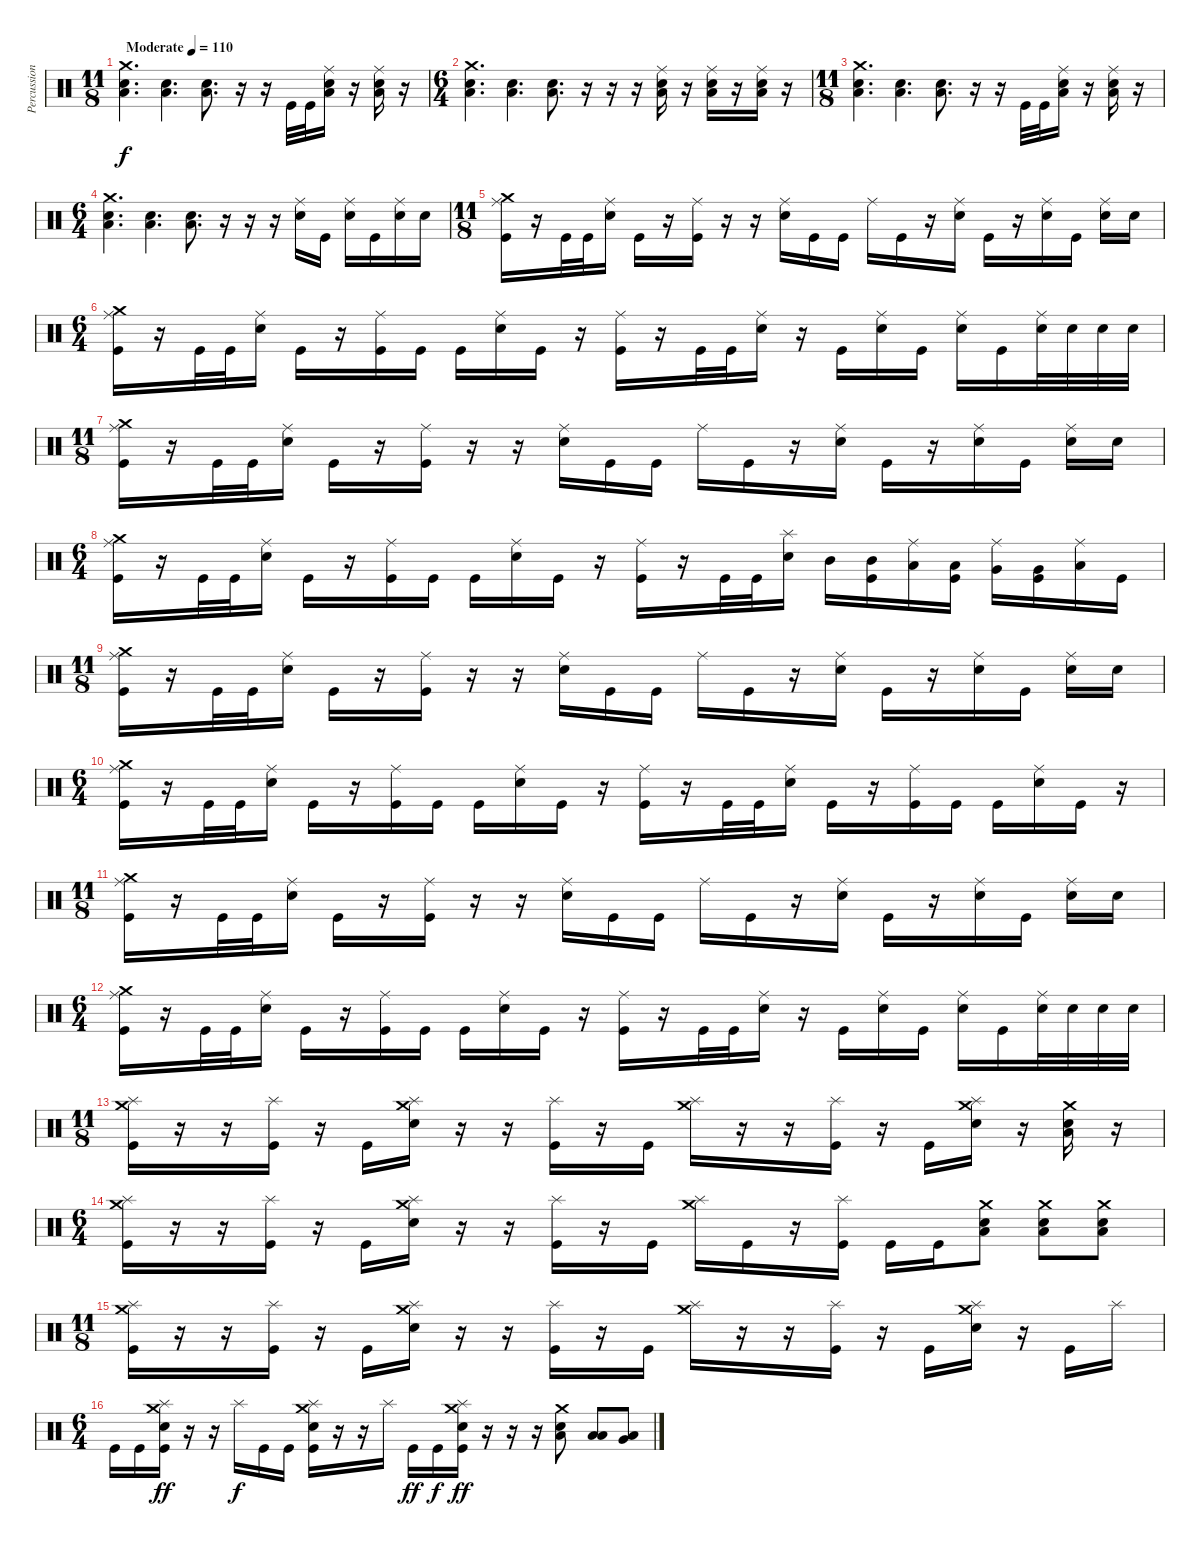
\track ("Percussion" "Percussion") {instrument percussion}
\staff {score}
\articulation defaults
\ts (11 8)
\tempo (110 "Moderate")
\clef neutral
\ks c
("Crash medium (hit)" "Electric Snare (hit)" "Low Floor Tom (hit)").4{d dy f} ("Electric Snare (hit)" "Low Floor Tom (hit)").4{d} ("Electric Snare (hit)" "Low Floor Tom (hit)").8{d} r.16 r.16 "Kick (hit)".32 "Kick (hit)".32 ("Ride (middle)" "Electric Snare (hit)" "Low Floor Tom (hit)").16 r.16 ("Ride (middle)" "Electric Snare (hit)" "Low Floor Tom (hit)").16 r.16 |
\ts (6 4)
("Crash medium (hit)" "Electric Snare (hit)" "Low Floor Tom (hit)").4{d} ("Electric Snare (hit)" "Low Floor Tom (hit)").4{d} ("Electric Snare (hit)" "Low Floor Tom (hit)").8{d} r.16 r.16 r.16 ("Ride (middle)" "Electric Snare (hit)" "Low Floor Tom (hit)").16 r.16 ("Ride (middle)" "Electric Snare (hit)" "Low Floor Tom (hit)").16 r.16 ("Ride (middle)" "Electric Snare (hit)" "Low Floor Tom (hit)").16 r.16 |
\ts (11 8)
("Crash medium (hit)" "Electric Snare (hit)" "Low Floor Tom (hit)").4{d} ("Electric Snare (hit)" "Low Floor Tom (hit)").4{d} ("Electric Snare (hit)" "Low Floor Tom (hit)").8{d} r.16 r.16 "Kick (hit)".32 "Kick (hit)".32 ("Ride (middle)" "Electric Snare (hit)" "Low Floor Tom (hit)").16 r.16 ("Ride (middle)" "Electric Snare (hit)" "Low Floor Tom (hit)").16 r.16 |
\ts (6 4)
("Crash medium (hit)" "Electric Snare (hit)" "Low Floor Tom (hit)").4{d} ("Electric Snare (hit)" "Low Floor Tom (hit)").4{d} ("Electric Snare (hit)" "Low Floor Tom (hit)").8{d} r.16 r.16 r.16 ("Ride (middle)" "Electric Snare (hit)").16 "Kick (hit)".16 ("Ride (middle)" "Electric Snare (hit)").16 "Kick (hit)".16 ("Ride (middle)" "Electric Snare (hit)").16 "Electric Snare (hit)".16 |
\ts (11 8)
("Ride (middle)" "Crash medium (hit)" "Kick (hit)").16 r.16 "Kick (hit)".32 "Kick (hit)".32 ("Ride (middle)" "Electric Snare (hit)").16 "Kick (hit)".16 r.16 ("Ride (middle)" "Kick (hit)").16 r.16 r.16 ("Ride (middle)" "Electric Snare (hit)").16 "Kick (hit)".16 "Kick (hit)".16 "Ride (middle)".16 "Kick (hit)".16 r.16 ("Ride (middle)" "Electric Snare (hit)").16 "Kick (hit)".16 r.16 ("Ride (middle)" "Electric Snare (hit)").16 "Kick (hit)".16 ("Ride (middle)" "Electric Snare (hit)").16 "Electric Snare (hit)".16 |
\ts (6 4)
("Ride (middle)" "Crash medium (hit)" "Kick (hit)").16 r.16 "Kick (hit)".32 "Kick (hit)".32 ("Ride (middle)" "Electric Snare (hit)").16 "Kick (hit)".16 r.16 ("Ride (middle)" "Kick (hit)").16 "Kick (hit)".16 "Kick (hit)".16 ("Ride (middle)" "Electric Snare (hit)").16 "Kick (hit)".16 r.16 ("Ride (middle)" "Kick (hit)").16 r.16 "Kick (hit)".32 "Kick (hit)".32 ("Ride (middle)" "Electric Snare (hit)").16 r.16 "Kick (hit)".16 ("Ride (middle)" "Electric Snare (hit)").16 "Kick (hit)".16 ("Ride (middle)" "Electric Snare (hit)").16 "Kick (hit)".16 ("Ride (middle)" "Electric Snare (hit)").32 "Electric Snare (hit)".32 "Electric Snare (hit)".32 "Electric Snare (hit)".32 |
\ts (11 8)
("Ride (middle)" "Crash medium (hit)" "Kick (hit)").16 r.16 "Kick (hit)".32 "Kick (hit)".32 ("Ride (middle)" "Electric Snare (hit)").16 "Kick (hit)".16 r.16 ("Ride (middle)" "Kick (hit)").16 r.16 r.16 ("Ride (middle)" "Electric Snare (hit)").16 "Kick (hit)".16 "Kick (hit)".16 "Ride (middle)".16 "Kick (hit)".16 r.16 ("Ride (middle)" "Electric Snare (hit)").16 "Kick (hit)".16 r.16 ("Ride (middle)" "Electric Snare (hit)").16 "Kick (hit)".16 ("Ride (middle)" "Electric Snare (hit)").16 "Electric Snare (hit)".16 |
\ts (6 4)
("Ride (middle)" "Crash medium (hit)" "Kick (hit)").16 r.16 "Kick (hit)".32 "Kick (hit)".32 ("Ride (middle)" "Electric Snare (hit)").16 "Kick (hit)".16 r.16 ("Ride (middle)" "Kick (hit)").16 "Kick (hit)".16 "Kick (hit)".16 ("Ride (middle)" "Electric Snare (hit)").16 "Kick (hit)".16 r.16 ("Ride (middle)" "Kick (hit)").16 r.16 "Kick (hit)".32 "Kick (hit)".32 ("Splash (hit)" "Electric Snare (hit)").16 "Mid Tom (hit)".16 ("Mid Tom (hit)" "Kick (hit)").16 ("Ride (middle)" "Low Tom (hit)").16 ("Low Tom (hit)" "Kick (hit)").16 ("Ride (middle)" "Very Low Tom (hit)").16 ("Very Low Tom (hit)" "Kick (hit)").16 ("Ride (middle)" "Low Floor Tom (hit)").16 "Kick (hit)".16 |
\ts (11 8)
("Ride (middle)" "Crash medium (hit)" "Kick (hit)").16 r.16 "Kick (hit)".32 "Kick (hit)".32 ("Ride (middle)" "Electric Snare (hit)").16 "Kick (hit)".16 r.16 ("Ride (middle)" "Kick (hit)").16 r.16 r.16 ("Ride (middle)" "Electric Snare (hit)").16 "Kick (hit)".16 "Kick (hit)".16 "Ride (middle)".16 "Kick (hit)".16 r.16 ("Ride (middle)" "Electric Snare (hit)").16 "Kick (hit)".16 r.16 ("Ride (middle)" "Electric Snare (hit)").16 "Kick (hit)".16 ("Ride (middle)" "Electric Snare (hit)").16 "Electric Snare (hit)".16 |
\ts (6 4)
("Ride (middle)" "Crash medium (hit)" "Kick (hit)").16 r.16 "Kick (hit)".32 "Kick (hit)".32 ("Ride (middle)" "Electric Snare (hit)").16 "Kick (hit)".16 r.16 ("Ride (middle)" "Kick (hit)").16 "Kick (hit)".16 "Kick (hit)".16 ("Ride (middle)" "Electric Snare (hit)").16 "Kick (hit)".16 r.16 ("Ride (middle)" "Kick (hit)").16 r.16 "Kick (hit)".32 "Kick (hit)".32 ("Ride (middle)" "Electric Snare (hit)").16 "Kick (hit)".16 r.16 ("Ride (middle)" "Kick (hit)").16 "Kick (hit)".16 "Kick (hit)".16 ("Ride (middle)" "Electric Snare (hit)").16 "Kick (hit)".16 r.16 |
\ts (11 8)
("Ride (middle)" "Crash medium (hit)" "Kick (hit)").16 r.16 "Kick (hit)".32 "Kick (hit)".32 ("Ride (middle)" "Electric Snare (hit)").16 "Kick (hit)".16 r.16 ("Ride (middle)" "Kick (hit)").16 r.16 r.16 ("Ride (middle)" "Electric Snare (hit)").16 "Kick (hit)".16 "Kick (hit)".16 "Ride (middle)".16 "Kick (hit)".16 r.16 ("Ride (middle)" "Electric Snare (hit)").16 "Kick (hit)".16 r.16 ("Ride (middle)" "Electric Snare (hit)").16 "Kick (hit)".16 ("Ride (middle)" "Electric Snare (hit)").16 "Electric Snare (hit)".16 |
\ts (6 4)
("Ride (middle)" "Crash medium (hit)" "Kick (hit)").16 r.16 "Kick (hit)".32 "Kick (hit)".32 ("Ride (middle)" "Electric Snare (hit)").16 "Kick (hit)".16 r.16 ("Ride (middle)" "Kick (hit)").16 "Kick (hit)".16 "Kick (hit)".16 ("Ride (middle)" "Electric Snare (hit)").16 "Kick (hit)".16 r.16 ("Ride (middle)" "Kick (hit)").16 r.16 "Kick (hit)".32 "Kick (hit)".32 ("Ride (middle)" "Electric Snare (hit)").16 r.16 "Kick (hit)".16 ("Ride (middle)" "Electric Snare (hit)").16 "Kick (hit)".16 ("Ride (middle)" "Electric Snare (hit)").16 "Kick (hit)".16 ("Ride (middle)" "Electric Snare (hit)").32 "Electric Snare (hit)".32 "Electric Snare (hit)".32 "Electric Snare (hit)".32 |
\ts (11 8)
("Splash (hit)" "Crash medium (hit)" "Kick (hit)").16 r.16 r.16 ("Splash (hit)" "Kick (hit)").16 r.16 "Kick (hit)".16 ("Splash (hit)" "Crash medium (hit)" "Electric Snare (hit)").16 r.16 r.16 ("Splash (hit)" "Kick (hit)").16 r.16 "Kick (hit)".16 ("Splash (hit)" "Crash medium (hit)").16 r.16 r.16 ("Splash (hit)" "Kick (hit)").16 r.16 "Kick (hit)".16 ("Splash (hit)" "Crash medium (hit)" "Electric Snare (hit)").16 r.16 ("Crash medium (hit)" "Electric Snare (hit)" "Low Floor Tom (hit)").16 r.16 |
\ts (6 4)
("Splash (hit)" "Crash medium (hit)" "Kick (hit)").16 r.16 r.16 ("Splash (hit)" "Kick (hit)").16 r.16 "Kick (hit)".16 ("Splash (hit)" "Crash medium (hit)" "Electric Snare (hit)").16 r.16 r.16 ("Splash (hit)" "Kick (hit)").16 r.16 "Kick (hit)".16 ("Splash (hit)" "Crash medium (hit)").16 "Kick (hit)".16 r.16 ("Splash (hit)" "Kick (hit)").16 "Kick (hit)".16 "Kick (hit)".16 ("Crash medium (hit)" "Electric Snare (hit)" "Low Floor Tom (hit)").8 ("Crash medium (hit)" "Electric Snare (hit)" "Low Floor Tom (hit)").8 ("Crash medium (hit)" "Electric Snare (hit)" "Low Floor Tom (hit)").8 |
\ts (11 8)
("Splash (hit)" "Crash medium (hit)" "Kick (hit)").16 r.16 r.16 ("Splash (hit)" "Kick (hit)").16 r.16 "Kick (hit)".16 ("Splash (hit)" "Crash medium (hit)" "Electric Snare (hit)").16 r.16 r.16 ("Splash (hit)" "Kick (hit)").16 r.16 "Kick (hit)".16 ("Splash (hit)" "Crash medium (hit)").16 r.16 r.16 ("Splash (hit)" "Kick (hit)").16 r.16 "Kick (hit)".16 ("Splash (hit)" "Crash medium (hit)" "Electric Snare (hit)").16 r.16 "Kick (hit)".16 "Splash (hit)".16 |
\ts (6 4)
"Kick (hit)".16 "Kick (hit)".16 ("Splash (hit)" "Crash medium (hit)" "Electric Snare (hit)" "Kick (hit)").16{dy ff} r.16 r.16 "Splash (hit)".16{dy f} "Kick (hit)".16 "Kick (hit)".16 ("Splash (hit)" "Crash medium (hit)" "Electric Snare (hit)" "Kick (hit)").16 r.16 r.16 "Splash (hit)".16 "Kick (hit)".16{dy ff} "Kick (hit)".16{dy f} ("Splash (hit)" "Crash medium (hit)" "Electric Snare (hit)" "Kick (hit)").16{dy ff} r.16 r.16 r.16 ("Crash medium (hit)" "Electric Snare (hit)" "Low Floor Tom (hit)").8 ("Low Tom (hit)" "Low Floor Tom (hit)").8 ("Very Low Tom (hit)" "Low Floor Tom (hit)").8
